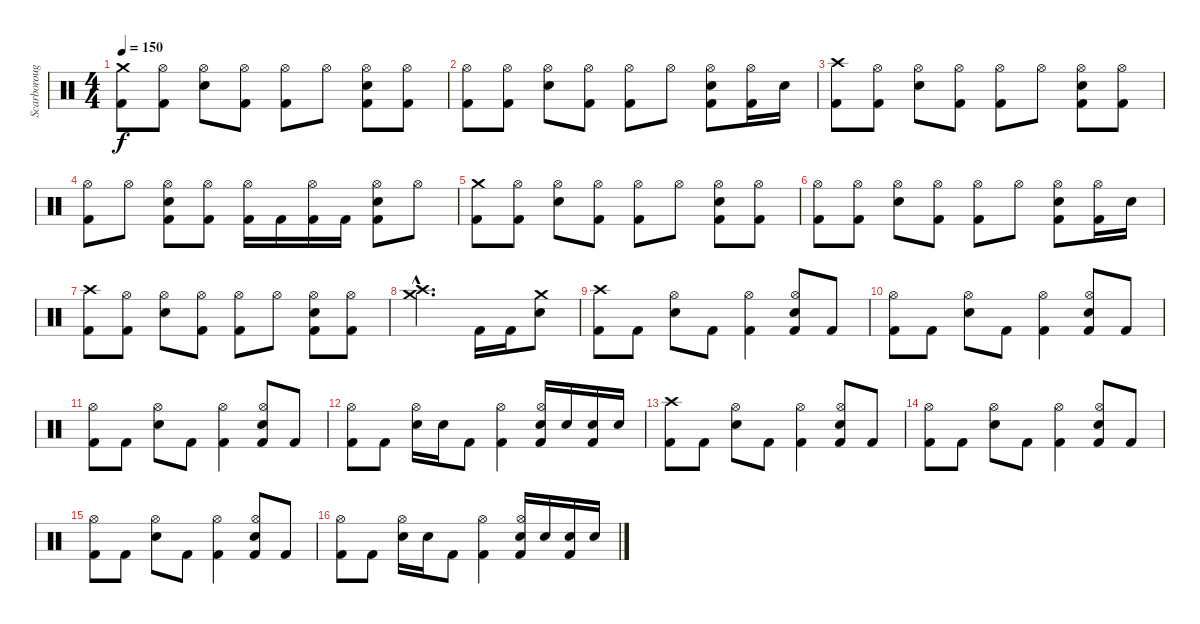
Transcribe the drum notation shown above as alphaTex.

\track ("Scarborough" "Scarboroug") {instrument percussion}
\staff {score}
\articulation defaults
\ts (4 4)
\tempo 150
\clef neutral
\ks c
("Crash medium (hit)" "Kick (hit) 2").8{dy f} ("Hi-Hat (open)" "Kick (hit) 2").8 ("Hi-Hat (open)" "Snare (hit) 2").8 ("Hi-Hat (open)" "Kick (hit) 2").8 ("Hi-Hat (open)" "Kick (hit) 2").8 "Hi-Hat (open)".8 ("Hi-Hat (open)" "Kick (hit) 2" "Snare (hit) 2").8 ("Hi-Hat (open)" "Kick (hit) 2").8 |
("Hi-Hat (open)" "Kick (hit) 2").8 ("Hi-Hat (open)" "Kick (hit) 2").8 ("Hi-Hat (open)" "Snare (hit) 2").8 ("Hi-Hat (open)" "Kick (hit) 2").8 ("Hi-Hat (open)" "Kick (hit) 2").8 "Hi-Hat (open)".8 ("Hi-Hat (open)" "Kick (hit) 2" "Snare (hit) 2").8 ("Hi-Hat (open)" "Kick (hit) 2").16 "Snare (hit) 2".16 |
("Crash high (hit)" "Kick (hit) 2").8 ("Hi-Hat (open)" "Kick (hit) 2").8 ("Hi-Hat (open)" "Snare (hit) 2").8 ("Hi-Hat (open)" "Kick (hit) 2").8 ("Hi-Hat (open)" "Kick (hit) 2").8 "Hi-Hat (open)".8 ("Hi-Hat (open)" "Kick (hit) 2" "Snare (hit) 2").8 ("Hi-Hat (open)" "Kick (hit) 2").8 |
("Hi-Hat (open)" "Kick (hit) 2").8 "Hi-Hat (open)".8 ("Hi-Hat (open)" "Kick (hit) 2" "Snare (hit) 2").8 ("Hi-Hat (open)" "Kick (hit) 2").8 ("Hi-Hat (open)" "Kick (hit) 2").16 "Kick (hit) 2".16 ("Hi-Hat (open)" "Kick (hit) 2").16 "Kick (hit) 2".16 ("Hi-Hat (open)" "Kick (hit) 2" "Snare (hit) 2").8 "Hi-Hat (open)".8 |
("Crash medium (hit)" "Kick (hit) 2").8 ("Hi-Hat (open)" "Kick (hit) 2").8 ("Hi-Hat (open)" "Snare (hit) 2").8 ("Hi-Hat (open)" "Kick (hit) 2").8 ("Hi-Hat (open)" "Kick (hit) 2").8 "Hi-Hat (open)".8 ("Hi-Hat (open)" "Kick (hit) 2" "Snare (hit) 2").8 ("Hi-Hat (open)" "Kick (hit) 2").8 |
("Hi-Hat (open)" "Kick (hit) 2").8 ("Hi-Hat (open)" "Kick (hit) 2").8 ("Hi-Hat (open)" "Snare (hit) 2").8 ("Hi-Hat (open)" "Kick (hit) 2").8 ("Hi-Hat (open)" "Kick (hit) 2").8 "Hi-Hat (open)".8 ("Hi-Hat (open)" "Kick (hit) 2" "Snare (hit) 2").8 ("Hi-Hat (open)" "Kick (hit) 2").16 "Snare (hit) 2".16 |
("Crash high (hit)" "Kick (hit) 2").8 ("Hi-Hat (open)" "Kick (hit) 2").8 ("Hi-Hat (open)" "Snare (hit) 2").8 ("Hi-Hat (open)" "Kick (hit) 2").8 ("Hi-Hat (open)" "Kick (hit) 2").8 "Hi-Hat (open)".8 ("Hi-Hat (open)" "Kick (hit) 2" "Snare (hit) 2").8 ("Hi-Hat (open)" "Kick (hit) 2").8 |
("Crash medium (hit)"{hac} "Crash high (hit)"{hac}).2{d} "Kick (hit) 2".16 "Kick (hit) 2".16 ("Crash medium (hit)" "Snare (hit) 2").8 |
("Crash high (hit)" "Kick (hit) 2").8 "Kick (hit) 2".8 ("Hi-Hat (open)" "Snare (hit) 2").8 "Kick (hit) 2".8 ("Hi-Hat (open)" "Kick (hit) 2").4 ("Hi-Hat (open)" "Kick (hit) 2" "Snare (hit) 2").8 "Kick (hit) 2".8 |
("Hi-Hat (open)" "Kick (hit) 2").8 "Kick (hit) 2".8 ("Hi-Hat (open)" "Snare (hit) 2").8 "Kick (hit) 2".8 ("Hi-Hat (open)" "Kick (hit) 2").4 ("Hi-Hat (open)" "Kick (hit) 2" "Snare (hit) 2").8 "Kick (hit) 2".8 |
("Hi-Hat (open)" "Kick (hit) 2").8 "Kick (hit) 2".8 ("Hi-Hat (open)" "Snare (hit) 2").8 "Kick (hit) 2".8 ("Hi-Hat (open)" "Kick (hit) 2").4 ("Hi-Hat (open)" "Kick (hit) 2" "Snare (hit) 2").8 "Kick (hit) 2".8 |
("Hi-Hat (open)" "Kick (hit) 2").8 "Kick (hit) 2".8 ("Hi-Hat (open)" "Snare (hit) 2").16 "Snare (hit) 2".16 "Kick (hit) 2".8 ("Hi-Hat (open)" "Kick (hit) 2").4 ("Hi-Hat (open)" "Kick (hit) 2" "Snare (hit) 2").16 "Snare (hit) 2".16 ("Kick (hit) 2" "Snare (hit) 2").16 "Snare (hit) 2".16 |
("Crash high (hit)" "Kick (hit) 2").8 "Kick (hit) 2".8 ("Hi-Hat (open)" "Snare (hit) 2").8 "Kick (hit) 2".8 ("Hi-Hat (open)" "Kick (hit) 2").4 ("Hi-Hat (open)" "Kick (hit) 2" "Snare (hit) 2").8 "Kick (hit) 2".8 |
("Hi-Hat (open)" "Kick (hit) 2").8 "Kick (hit) 2".8 ("Hi-Hat (open)" "Snare (hit) 2").8 "Kick (hit) 2".8 ("Hi-Hat (open)" "Kick (hit) 2").4 ("Hi-Hat (open)" "Kick (hit) 2" "Snare (hit) 2").8 "Kick (hit) 2".8 |
("Hi-Hat (open)" "Kick (hit) 2").8 "Kick (hit) 2".8 ("Hi-Hat (open)" "Snare (hit) 2").8 "Kick (hit) 2".8 ("Hi-Hat (open)" "Kick (hit) 2").4 ("Hi-Hat (open)" "Kick (hit) 2" "Snare (hit) 2").8 "Kick (hit) 2".8 |
("Hi-Hat (open)" "Kick (hit) 2").8 "Kick (hit) 2".8 ("Hi-Hat (open)" "Snare (hit) 2").16 "Snare (hit) 2".16 "Kick (hit) 2".8 ("Hi-Hat (open)" "Kick (hit) 2").4 ("Hi-Hat (open)" "Kick (hit) 2" "Snare (hit) 2").16 "Snare (hit) 2".16 ("Kick (hit) 2" "Snare (hit) 2").16 "Snare (hit) 2".16
